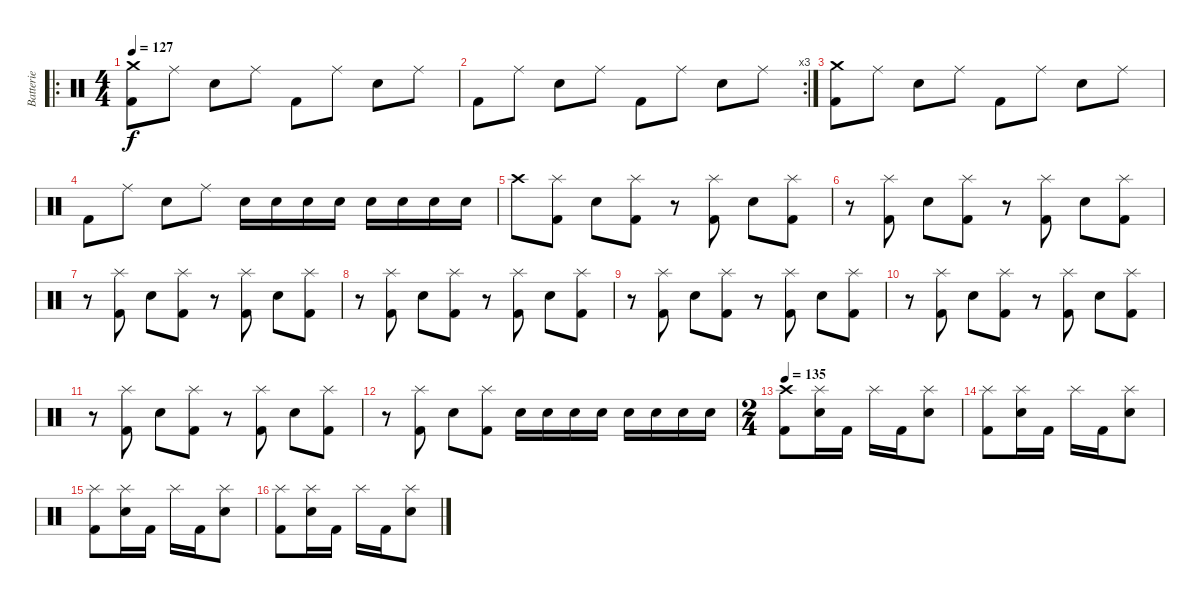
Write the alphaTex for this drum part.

\track ("Batterie" "Batterie") {instrument percussion}
\staff {score}
\articulation defaults
\ro
\ts (4 4)
\tempo 127
\clef neutral
\ks c
("Crash medium (hit)" "Kick (hit) 2").8{dy f} "Ride (middle)".8 "Snare (hit) 2".8 "Ride (middle)".8 "Kick (hit) 2".8 "Ride (middle)".8 "Snare (hit) 2".8 "Ride (middle)".8 |
\rc 3 "Kick (hit) 2".8 "Ride (middle)".8 "Snare (hit) 2".8 "Ride (middle)".8 "Kick (hit) 2".8 "Ride (middle)".8 "Snare (hit) 2".8 "Ride (middle)".8
|
("Crash medium (hit)" "Kick (hit) 2").8 "Ride (middle)".8 "Snare (hit) 2".8 "Ride (middle)".8 "Kick (hit) 2".8 "Ride (middle)".8 "Snare (hit) 2".8 "Ride (middle)".8 |
"Kick (hit) 2".8 "Ride (middle)".8 "Snare (hit) 2".8 "Ride (middle)".8 "Snare (hit) 2".16 "Snare (hit) 2".16 "Snare (hit) 2".16 "Snare (hit) 2".16 "Snare (hit) 2".16 "Snare (hit) 2".16 "Snare (hit) 2".16 "Snare (hit) 2".16 |
"Crash high (hit)".8 ("Splash (hit)" "Kick (hit) 2").8 "Snare (hit) 2".8 ("Splash (hit)" "Kick (hit) 2").8 r.8 ("Splash (hit)" "Kick (hit) 2").8 "Snare (hit) 2".8 ("Splash (hit)" "Kick (hit) 2").8 |
r.8 ("Splash (hit)" "Kick (hit) 2").8 "Snare (hit) 2".8 ("Splash (hit)" "Kick (hit) 2").8 r.8 ("Splash (hit)" "Kick (hit) 2").8 "Snare (hit) 2".8 ("Splash (hit)" "Kick (hit) 2").8 |
r.8 ("Splash (hit)" "Kick (hit) 2").8 "Snare (hit) 2".8 ("Splash (hit)" "Kick (hit) 2").8 r.8 ("Splash (hit)" "Kick (hit) 2").8 "Snare (hit) 2".8 ("Splash (hit)" "Kick (hit) 2").8 |
r.8 ("Splash (hit)" "Kick (hit) 2").8 "Snare (hit) 2".8 ("Splash (hit)" "Kick (hit) 2").8 r.8 ("Splash (hit)" "Kick (hit) 2").8 "Snare (hit) 2".8 ("Splash (hit)" "Kick (hit) 2").8 |
r.8 ("Splash (hit)" "Kick (hit) 2").8 "Snare (hit) 2".8 ("Splash (hit)" "Kick (hit) 2").8 r.8 ("Splash (hit)" "Kick (hit) 2").8 "Snare (hit) 2".8 ("Splash (hit)" "Kick (hit) 2").8 |
r.8 ("Splash (hit)" "Kick (hit) 2").8 "Snare (hit) 2".8 ("Splash (hit)" "Kick (hit) 2").8 r.8 ("Splash (hit)" "Kick (hit) 2").8 "Snare (hit) 2".8 ("Splash (hit)" "Kick (hit) 2").8 |
r.8 ("Splash (hit)" "Kick (hit) 2").8 "Snare (hit) 2".8 ("Splash (hit)" "Kick (hit) 2").8 r.8 ("Splash (hit)" "Kick (hit) 2").8 "Snare (hit) 2".8 ("Splash (hit)" "Kick (hit) 2").8 |
r.8 ("Splash (hit)" "Kick (hit) 2").8 "Snare (hit) 2".8 ("Splash (hit)" "Kick (hit) 2").8 "Snare (hit) 2".16 "Snare (hit) 2".16 "Snare (hit) 2".16 "Snare (hit) 2".16 "Snare (hit) 2".16 "Snare (hit) 2".16 "Snare (hit) 2".16 "Snare (hit) 2".16 |
\ts (2 4)
\tempo 135
("Crash high (hit)" "Kick (hit) 2").8 ("Splash (hit)" "Electric Snare (hit)").16 "Kick (hit) 2".16 "Splash (hit)".16 "Kick (hit) 2".16 ("Splash (hit)" "Electric Snare (hit)").8 |
("Splash (hit)" "Kick (hit) 2").8 ("Splash (hit)" "Electric Snare (hit)").16 "Kick (hit) 2".16 "Splash (hit)".16 "Kick (hit) 2".16 ("Splash (hit)" "Electric Snare (hit)").8 |
("Splash (hit)" "Kick (hit) 2").8 ("Splash (hit)" "Electric Snare (hit)").16 "Kick (hit) 2".16 "Splash (hit)".16 "Kick (hit) 2".16 ("Splash (hit)" "Electric Snare (hit)").8 |
("Splash (hit)" "Kick (hit) 2").8 ("Splash (hit)" "Electric Snare (hit)").16 "Kick (hit) 2".16 "Splash (hit)".16 "Kick (hit) 2".16 ("Splash (hit)" "Electric Snare (hit)").8
